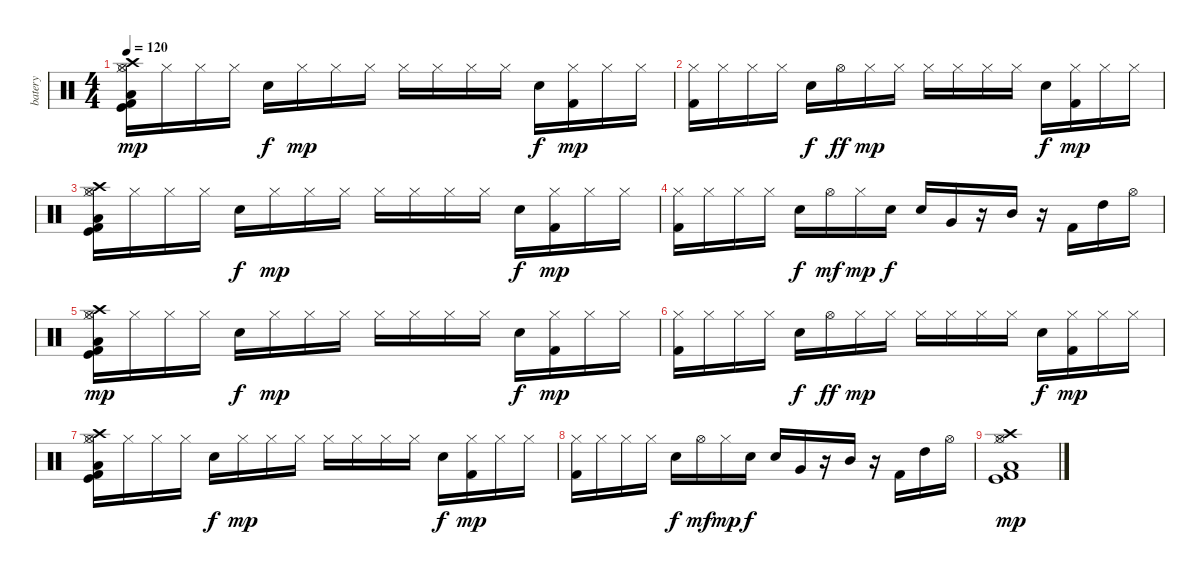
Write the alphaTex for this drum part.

\track ("batery" "batery") {instrument percussion}
\staff {score}
\articulation defaults
\ts (4 4)
\tempo 120
\clef neutral
\ks c
("Hi-Hat (closed)" "Kick (hit) 2" "Low Tom (hit)" "Crash high (hit)" "Hi-Hat (open)" "Kick (hit)").16{dy mp} "Hi-Hat (closed)".16 "Hi-Hat (closed)".16 "Hi-Hat (closed)".16 "Electric Snare (hit)".16{dy f} "Hi-Hat (closed)".16{dy mp} "Hi-Hat (closed)".16 "Hi-Hat (closed)".16 "Hi-Hat (closed)".16 "Hi-Hat (closed)".16 "Hi-Hat (closed)".16 "Hi-Hat (closed)".16 "Electric Snare (hit)".16{dy f} ("Hi-Hat (closed)" "Kick (hit) 2").16{dy mp} "Hi-Hat (closed)".16 "Hi-Hat (closed)".16 |
("Hi-Hat (closed)" "Kick (hit) 2").16 "Hi-Hat (closed)".16 "Hi-Hat (closed)".16 "Hi-Hat (closed)".16 "Electric Snare (hit)".16{dy f} "Hi-Hat (open)".16{dy ff} "Hi-Hat (closed)".16{dy mp} "Hi-Hat (closed)".16 "Hi-Hat (closed)".16 "Hi-Hat (closed)".16 "Hi-Hat (closed)".16 "Hi-Hat (closed)".16 "Electric Snare (hit)".16{dy f} ("Hi-Hat (closed)" "Kick (hit) 2").16{dy mp} "Hi-Hat (closed)".16 "Hi-Hat (closed)".16 |
("Hi-Hat (closed)" "Kick (hit) 2" "Low Tom (hit)" "Crash high (hit)" "Hi-Hat (open)" "Kick (hit)").16 "Hi-Hat (closed)".16 "Hi-Hat (closed)".16 "Hi-Hat (closed)".16 "Electric Snare (hit)".16{dy f} "Hi-Hat (closed)".16{dy mp} "Hi-Hat (closed)".16 "Hi-Hat (closed)".16 "Hi-Hat (closed)".16 "Hi-Hat (closed)".16 "Hi-Hat (closed)".16 "Hi-Hat (closed)".16 "Electric Snare (hit)".16{dy f} ("Hi-Hat (closed)" "Kick (hit) 2").16{dy mp} "Hi-Hat (closed)".16 "Hi-Hat (closed)".16 |
("Hi-Hat (closed)" "Kick (hit) 2").16 "Hi-Hat (closed)".16 "Hi-Hat (closed)".16 "Hi-Hat (closed)".16 "Electric Snare (hit)".16{dy f} "Hi-Hat (open)".16{dy mf} "Hi-Hat (closed)".16{dy mp} "Electric Snare (hit)".16{dy f} "Electric Snare (hit)".16 "Very Low Tom (hit)".16 r.16 "Mid Tom (hit)".16 r.16 "Kick (hit) 2".16 "High Tom (hit)".16 "Hi-Hat (open)".16 |
("Hi-Hat (closed)" "Kick (hit) 2" "Low Tom (hit)" "Crash high (hit)" "Hi-Hat (open)" "Kick (hit)").16{dy mp} "Hi-Hat (closed)".16 "Hi-Hat (closed)".16 "Hi-Hat (closed)".16 "Electric Snare (hit)".16{dy f} "Hi-Hat (closed)".16{dy mp} "Hi-Hat (closed)".16 "Hi-Hat (closed)".16 "Hi-Hat (closed)".16 "Hi-Hat (closed)".16 "Hi-Hat (closed)".16 "Hi-Hat (closed)".16 "Electric Snare (hit)".16{dy f} ("Hi-Hat (closed)" "Kick (hit) 2").16{dy mp} "Hi-Hat (closed)".16 "Hi-Hat (closed)".16 |
("Hi-Hat (closed)" "Kick (hit) 2").16 "Hi-Hat (closed)".16 "Hi-Hat (closed)".16 "Hi-Hat (closed)".16 "Electric Snare (hit)".16{dy f} "Hi-Hat (open)".16{dy ff} "Hi-Hat (closed)".16{dy mp} "Hi-Hat (closed)".16 "Hi-Hat (closed)".16 "Hi-Hat (closed)".16 "Hi-Hat (closed)".16 "Hi-Hat (closed)".16 "Electric Snare (hit)".16{dy f} ("Hi-Hat (closed)" "Kick (hit) 2").16{dy mp} "Hi-Hat (closed)".16 "Hi-Hat (closed)".16 |
("Hi-Hat (closed)" "Kick (hit) 2" "Low Tom (hit)" "Crash high (hit)" "Hi-Hat (open)" "Kick (hit)").16 "Hi-Hat (closed)".16 "Hi-Hat (closed)".16 "Hi-Hat (closed)".16 "Electric Snare (hit)".16{dy f} "Hi-Hat (closed)".16{dy mp} "Hi-Hat (closed)".16 "Hi-Hat (closed)".16 "Hi-Hat (closed)".16 "Hi-Hat (closed)".16 "Hi-Hat (closed)".16 "Hi-Hat (closed)".16 "Electric Snare (hit)".16{dy f} ("Hi-Hat (closed)" "Kick (hit) 2").16{dy mp} "Hi-Hat (closed)".16 "Hi-Hat (closed)".16 |
("Hi-Hat (closed)" "Kick (hit) 2").16 "Hi-Hat (closed)".16 "Hi-Hat (closed)".16 "Hi-Hat (closed)".16 "Electric Snare (hit)".16{dy f} "Hi-Hat (open)".16{dy mf} "Hi-Hat (closed)".16{dy mp} "Electric Snare (hit)".16{dy f} "Electric Snare (hit)".16 "Very Low Tom (hit)".16 r.16 "Mid Tom (hit)".16 r.16 "Kick (hit) 2".16 "High Tom (hit)".16 "Hi-Hat (open)".16 |
("Hi-Hat (closed)" "Kick (hit) 2" "Low Tom (hit)" "Crash high (hit)" "Hi-Hat (open)" "Kick (hit)").1{dy mp}
